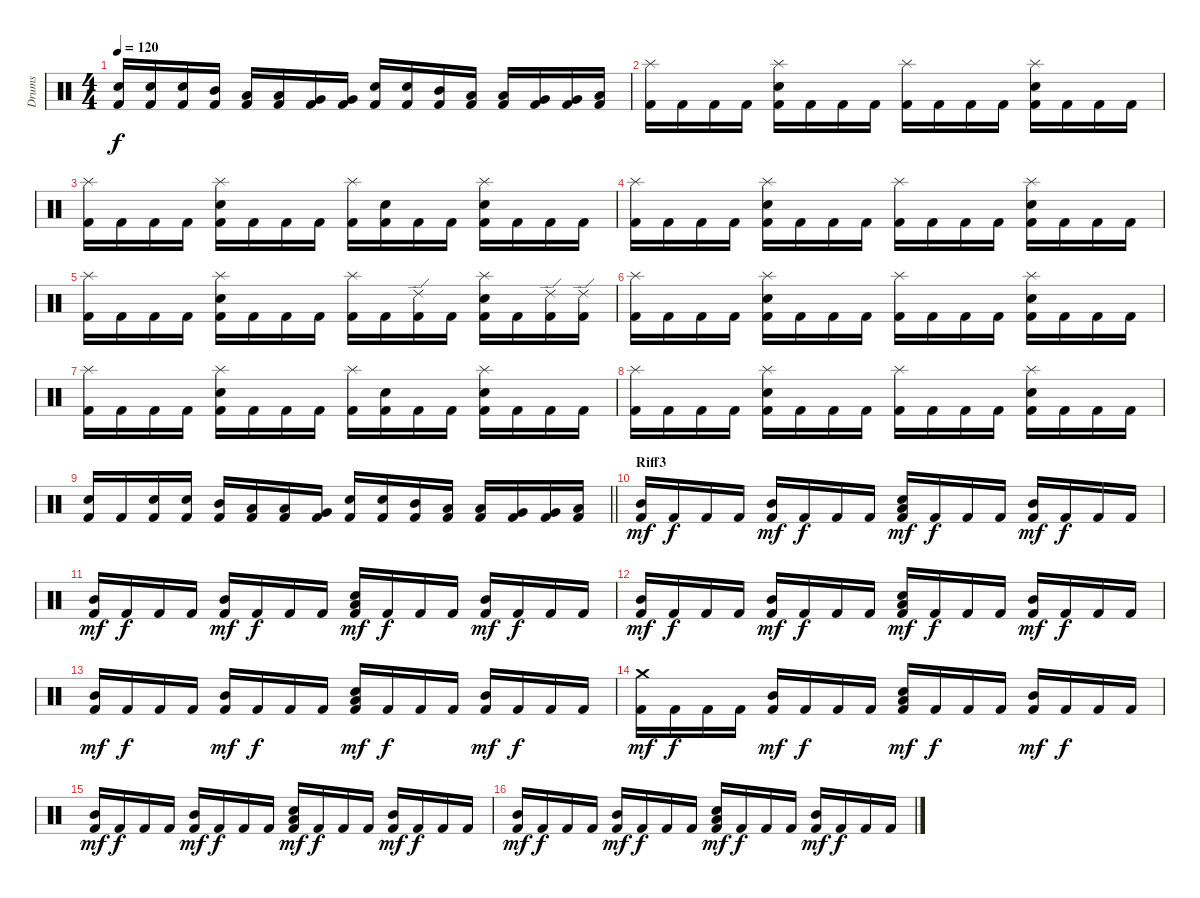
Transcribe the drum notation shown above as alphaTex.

\track ("Drums" "Drums") {instrument percussion}
\staff {score}
\articulation defaults
\ts (4 4)
\tempo 120
\clef neutral
\ks c
("Kick (hit) 2" "Snare (hit) 2").16{dy f} ("Kick (hit) 2" "Snare (hit) 2").16 ("Kick (hit) 2" "Snare (hit) 2").16 ("Kick (hit) 2" "Mid Tom (hit)").16 ("Kick (hit) 2" "Low Tom (hit)").16 ("Kick (hit) 2" "Low Tom (hit)").16 ("Kick (hit) 2" "Very Low Tom (hit)").16 ("Kick (hit) 2" "Very Low Tom (hit)").16 ("Kick (hit) 2" "Snare (hit) 2").16 ("Kick (hit) 2" "Snare (hit) 2").16 ("Kick (hit) 2" "Mid Tom (hit)").16 ("Kick (hit) 2" "Low Tom (hit)").16 ("Kick (hit) 2" "Low Tom (hit)").16 ("Kick (hit) 2" "Very Low Tom (hit)").16 ("Kick (hit) 2" "Very Low Tom (hit)").16 ("Kick (hit) 2" "Low Floor Tom (hit)").16 |
("Kick (hit) 2" "Splash (hit)").16 "Kick (hit) 2".16 "Kick (hit) 2".16 "Kick (hit) 2".16 ("Kick (hit) 2" "Snare (hit) 2" "Splash (hit)").16 "Kick (hit) 2".16 "Kick (hit) 2".16 "Kick (hit) 2".16 ("Kick (hit) 2" "Splash (hit)").16 "Kick (hit) 2".16 "Kick (hit) 2".16 "Kick (hit) 2".16 ("Kick (hit) 2" "Snare (hit) 2" "Splash (hit)").16 "Kick (hit) 2".16 "Kick (hit) 2".16 "Kick (hit) 2".16 |
("Kick (hit) 2" "Splash (hit)").16 "Kick (hit) 2".16 "Kick (hit) 2".16 "Kick (hit) 2".16 ("Kick (hit) 2" "Snare (hit) 2" "Splash (hit)").16 "Kick (hit) 2".16 "Kick (hit) 2".16 "Kick (hit) 2".16 ("Kick (hit) 2" "Splash (hit)").16 ("Kick (hit) 2" "Snare (hit) 2").16 "Kick (hit) 2".16 "Kick (hit) 2".16 ("Kick (hit) 2" "Snare (hit) 2" "Splash (hit)").16 "Kick (hit) 2".16 "Kick (hit) 2".16 "Kick (hit) 2".16 |
("Kick (hit) 2" "Splash (hit)").16 "Kick (hit) 2".16 "Kick (hit) 2".16 "Kick (hit) 2".16 ("Kick (hit) 2" "Snare (hit) 2" "Splash (hit)").16 "Kick (hit) 2".16 "Kick (hit) 2".16 "Kick (hit) 2".16 ("Kick (hit) 2" "Splash (hit)").16 "Kick (hit) 2".16 "Kick (hit) 2".16 "Kick (hit) 2".16 ("Kick (hit) 2" "Snare (hit) 2" "Splash (hit)").16 "Kick (hit) 2".16 "Kick (hit) 2".16 "Kick (hit) 2".16 |
("Kick (hit) 2" "Splash (hit)").16 "Kick (hit) 2".16 "Kick (hit) 2".16 "Kick (hit) 2".16 ("Kick (hit) 2" "Snare (hit) 2" "Splash (hit)").16 "Kick (hit) 2".16 "Kick (hit) 2".16 "Kick (hit) 2".16 ("Kick (hit) 2" "Splash (hit)").16 "Kick (hit) 2".16 ("Kick (hit) 2" "Ride (edge) 2").16 "Kick (hit) 2".16 ("Kick (hit) 2" "Snare (hit) 2" "Splash (hit)").16 "Kick (hit) 2".16 ("Kick (hit) 2" "Ride (edge) 2").16 ("Kick (hit) 2" "Ride (edge) 2").16 |
("Kick (hit) 2" "Splash (hit)").16 "Kick (hit) 2".16 "Kick (hit) 2".16 "Kick (hit) 2".16 ("Kick (hit) 2" "Snare (hit) 2" "Splash (hit)").16 "Kick (hit) 2".16 "Kick (hit) 2".16 "Kick (hit) 2".16 ("Kick (hit) 2" "Splash (hit)").16 "Kick (hit) 2".16 "Kick (hit) 2".16 "Kick (hit) 2".16 ("Kick (hit) 2" "Snare (hit) 2" "Splash (hit)").16 "Kick (hit) 2".16 "Kick (hit) 2".16 "Kick (hit) 2".16 |
("Kick (hit) 2" "Splash (hit)").16 "Kick (hit) 2".16 "Kick (hit) 2".16 "Kick (hit) 2".16 ("Kick (hit) 2" "Snare (hit) 2" "Splash (hit)").16 "Kick (hit) 2".16 "Kick (hit) 2".16 "Kick (hit) 2".16 ("Kick (hit) 2" "Splash (hit)").16 ("Kick (hit) 2" "Snare (hit) 2").16 "Kick (hit) 2".16 "Kick (hit) 2".16 ("Kick (hit) 2" "Snare (hit) 2" "Splash (hit)").16 "Kick (hit) 2".16 "Kick (hit) 2".16 "Kick (hit) 2".16 |
("Kick (hit) 2" "Splash (hit)").16 "Kick (hit) 2".16 "Kick (hit) 2".16 "Kick (hit) 2".16 ("Kick (hit) 2" "Snare (hit) 2" "Splash (hit)").16 "Kick (hit) 2".16 "Kick (hit) 2".16 "Kick (hit) 2".16 ("Kick (hit) 2" "Splash (hit)").16 "Kick (hit) 2".16 "Kick (hit) 2".16 "Kick (hit) 2".16 ("Kick (hit) 2" "Snare (hit) 2" "Splash (hit)").16 "Kick (hit) 2".16 "Kick (hit) 2".16 "Kick (hit) 2".16 |
\barLineRight lightlight
("Kick (hit) 2" "Snare (hit) 2").16 "Kick (hit) 2".16 ("Kick (hit) 2" "Snare (hit) 2").16 ("Kick (hit) 2" "Snare (hit) 2").16 ("Kick (hit) 2" "Mid Tom (hit)").16 ("Kick (hit) 2" "Low Tom (hit)").16 ("Kick (hit) 2" "Low Tom (hit)").16 ("Kick (hit) 2" "Very Low Tom (hit)").16 ("Kick (hit) 2" "Snare (hit) 2").16 ("Kick (hit) 2" "Snare (hit) 2").16 ("Kick (hit) 2" "Mid Tom (hit)").16 ("Kick (hit) 2" "Low Tom (hit)").16 ("Kick (hit) 2" "Low Tom (hit)").16 ("Kick (hit) 2" "Very Low Tom (hit)").16 ("Kick (hit) 2" "Very Low Tom (hit)").16 ("Kick (hit) 2" "Low Floor Tom (hit)").16 |
\section ("" "Riff3")
("Kick (hit) 2" "Mid Tom (hit)").16{dy mf} "Kick (hit) 2".16{dy f} "Kick (hit) 2".16 "Kick (hit) 2".16 ("Kick (hit) 2" "Mid Tom (hit)").16{dy mf} "Kick (hit) 2".16{dy f} "Kick (hit) 2".16 "Kick (hit) 2".16 ("Kick (hit) 2" "Snare (hit) 2" "Low Tom (hit)").16{dy mf} "Kick (hit) 2".16{dy f} "Kick (hit) 2".16 "Kick (hit) 2".16 ("Kick (hit) 2" "Mid Tom (hit)").16{dy mf} "Kick (hit) 2".16{dy f} "Kick (hit) 2".16 "Kick (hit) 2".16 |
("Kick (hit) 2" "Mid Tom (hit)").16{dy mf} "Kick (hit) 2".16{dy f} "Kick (hit) 2".16 "Kick (hit) 2".16 ("Kick (hit) 2" "Mid Tom (hit)").16{dy mf} "Kick (hit) 2".16{dy f} "Kick (hit) 2".16 "Kick (hit) 2".16 ("Kick (hit) 2" "Snare (hit) 2" "Low Tom (hit)").16{dy mf} "Kick (hit) 2".16{dy f} "Kick (hit) 2".16 "Kick (hit) 2".16 ("Kick (hit) 2" "Mid Tom (hit)").16{dy mf} "Kick (hit) 2".16{dy f} "Kick (hit) 2".16 "Kick (hit) 2".16 |
("Kick (hit) 2" "Mid Tom (hit)").16{dy mf} "Kick (hit) 2".16{dy f} "Kick (hit) 2".16 "Kick (hit) 2".16 ("Kick (hit) 2" "Mid Tom (hit)").16{dy mf} "Kick (hit) 2".16{dy f} "Kick (hit) 2".16 "Kick (hit) 2".16 ("Kick (hit) 2" "Snare (hit) 2" "Low Tom (hit)").16{dy mf} "Kick (hit) 2".16{dy f} "Kick (hit) 2".16 "Kick (hit) 2".16 ("Kick (hit) 2" "Mid Tom (hit)").16{dy mf} "Kick (hit) 2".16{dy f} "Kick (hit) 2".16 "Kick (hit) 2".16 |
("Kick (hit) 2" "Mid Tom (hit)").16{dy mf} "Kick (hit) 2".16{dy f} "Kick (hit) 2".16 "Kick (hit) 2".16 ("Kick (hit) 2" "Mid Tom (hit)").16{dy mf} "Kick (hit) 2".16{dy f} "Kick (hit) 2".16 "Kick (hit) 2".16 ("Kick (hit) 2" "Snare (hit) 2" "Low Tom (hit)").16{dy mf} "Kick (hit) 2".16{dy f} "Kick (hit) 2".16 "Kick (hit) 2".16 ("Kick (hit) 2" "Mid Tom (hit)").16{dy mf} "Kick (hit) 2".16{dy f} "Kick (hit) 2".16 "Kick (hit) 2".16 |
("Kick (hit) 2" "Crash medium (hit)").16{dy mf} "Kick (hit) 2".16{dy f} "Kick (hit) 2".16 "Kick (hit) 2".16 ("Kick (hit) 2" "Mid Tom (hit)").16{dy mf} "Kick (hit) 2".16{dy f} "Kick (hit) 2".16 "Kick (hit) 2".16 ("Kick (hit) 2" "Snare (hit) 2" "Low Tom (hit)").16{dy mf} "Kick (hit) 2".16{dy f} "Kick (hit) 2".16 "Kick (hit) 2".16 ("Kick (hit) 2" "Mid Tom (hit)").16{dy mf} "Kick (hit) 2".16{dy f} "Kick (hit) 2".16 "Kick (hit) 2".16 |
("Kick (hit) 2" "Mid Tom (hit)").16{dy mf} "Kick (hit) 2".16{dy f} "Kick (hit) 2".16 "Kick (hit) 2".16 ("Kick (hit) 2" "Mid Tom (hit)").16{dy mf} "Kick (hit) 2".16{dy f} "Kick (hit) 2".16 "Kick (hit) 2".16 ("Kick (hit) 2" "Snare (hit) 2" "Low Tom (hit)").16{dy mf} "Kick (hit) 2".16{dy f} "Kick (hit) 2".16 "Kick (hit) 2".16 ("Kick (hit) 2" "Mid Tom (hit)").16{dy mf} "Kick (hit) 2".16{dy f} "Kick (hit) 2".16 "Kick (hit) 2".16 |
("Kick (hit) 2" "Mid Tom (hit)").16{dy mf} "Kick (hit) 2".16{dy f} "Kick (hit) 2".16 "Kick (hit) 2".16 ("Kick (hit) 2" "Mid Tom (hit)").16{dy mf} "Kick (hit) 2".16{dy f} "Kick (hit) 2".16 "Kick (hit) 2".16 ("Kick (hit) 2" "Snare (hit) 2" "Low Tom (hit)").16{dy mf} "Kick (hit) 2".16{dy f} "Kick (hit) 2".16 "Kick (hit) 2".16 ("Kick (hit) 2" "Mid Tom (hit)").16{dy mf} "Kick (hit) 2".16{dy f} "Kick (hit) 2".16 "Kick (hit) 2".16
